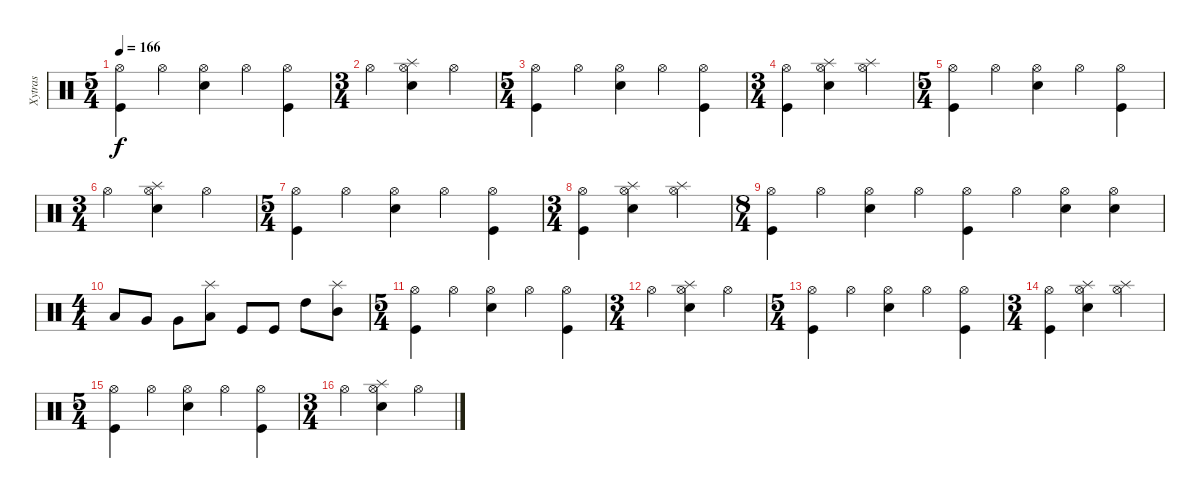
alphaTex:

\track ("Xytras" "Xytras") {instrument percussion}
\staff {score}
\articulation defaults
\ts (5 4)
\tempo 166
\clef neutral
\ks c
("Hi-Hat (open)" "Kick (hit)").4{dy f} "Hi-Hat (open)".4 ("Hi-Hat (open)" "Electric Snare (hit)").4 "Hi-Hat (open)".4 ("Hi-Hat (open)" "Kick (hit)").4 |
\ts (3 4)
"Hi-Hat (open)".4 ("Hi-Hat (open)" "Electric Snare (hit)" "Splash (hit)").4 "Hi-Hat (open)".4 |
\ts (5 4)
("Hi-Hat (open)" "Kick (hit)").4 "Hi-Hat (open)".4 ("Hi-Hat (open)" "Electric Snare (hit)").4 "Hi-Hat (open)".4 ("Hi-Hat (open)" "Kick (hit)").4 |
\ts (3 4)
("Hi-Hat (open)" "Kick (hit)").4 ("Hi-Hat (open)" "Electric Snare (hit)" "Splash (hit)").4 ("Hi-Hat (open)" "Splash (hit)").4 |
\ts (5 4)
("Hi-Hat (open)" "Kick (hit)").4 "Hi-Hat (open)".4 ("Hi-Hat (open)" "Electric Snare (hit)").4 "Hi-Hat (open)".4 ("Hi-Hat (open)" "Kick (hit)").4 |
\ts (3 4)
"Hi-Hat (open)".4 ("Hi-Hat (open)" "Electric Snare (hit)" "Splash (hit)").4 "Hi-Hat (open)".4 |
\ts (5 4)
("Hi-Hat (open)" "Kick (hit)").4 "Hi-Hat (open)".4 ("Hi-Hat (open)" "Electric Snare (hit)").4 "Hi-Hat (open)".4 ("Hi-Hat (open)" "Kick (hit)").4 |
\ts (3 4)
("Hi-Hat (open)" "Kick (hit)").4 ("Hi-Hat (open)" "Electric Snare (hit)" "Splash (hit)").4 ("Hi-Hat (open)" "Splash (hit)").4 |
\ts (8 4)
("Hi-Hat (open)" "Kick (hit)").4 "Hi-Hat (open)".4 ("Hi-Hat (open)" "Electric Snare (hit)").4 "Hi-Hat (open)".4 ("Hi-Hat (open)" "Kick (hit)").4 "Hi-Hat (open)".4 ("Hi-Hat (open)" "Electric Snare (hit)").4 ("Hi-Hat (open)" "Electric Snare (hit)").4 |
\ts (4 4)
"Low Floor Tom (hit)".8 "Very Low Tom (hit)".8 "Very Low Tom (hit)".8 ("Low Tom (hit)" "Splash (hit)").8 "Kick (hit)".8 "Kick (hit)".8 "High Tom (hit)".8 ("Mid Tom (hit)" "Splash (hit)").8 |
\ts (5 4)
("Hi-Hat (open)" "Kick (hit)").4 "Hi-Hat (open)".4 ("Hi-Hat (open)" "Electric Snare (hit)").4 "Hi-Hat (open)".4 ("Hi-Hat (open)" "Kick (hit)").4 |
\ts (3 4)
"Hi-Hat (open)".4 ("Hi-Hat (open)" "Electric Snare (hit)" "Splash (hit)").4 "Hi-Hat (open)".4 |
\ts (5 4)
("Hi-Hat (open)" "Kick (hit)").4 "Hi-Hat (open)".4 ("Hi-Hat (open)" "Electric Snare (hit)").4 "Hi-Hat (open)".4 ("Hi-Hat (open)" "Kick (hit)").4 |
\ts (3 4)
("Hi-Hat (open)" "Kick (hit)").4 ("Hi-Hat (open)" "Electric Snare (hit)" "Splash (hit)").4 ("Hi-Hat (open)" "Splash (hit)").4 |
\ts (5 4)
("Hi-Hat (open)" "Kick (hit)").4 "Hi-Hat (open)".4 ("Hi-Hat (open)" "Electric Snare (hit)").4 "Hi-Hat (open)".4 ("Hi-Hat (open)" "Kick (hit)").4 |
\ts (3 4)
"Hi-Hat (open)".4 ("Hi-Hat (open)" "Electric Snare (hit)" "Splash (hit)").4 "Hi-Hat (open)".4
